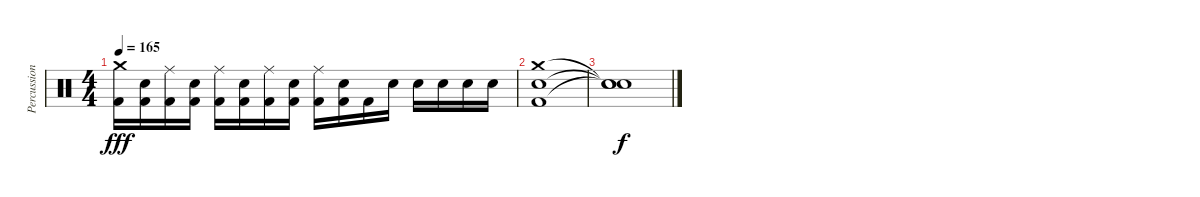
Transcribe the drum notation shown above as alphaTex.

\track ("Percussions" "Percussion") {instrument percussion}
\staff {score}
\articulation defaults
\ts (4 4)
\tempo 165
\clef neutral
\ks c
("Crash medium (hit)" "Kick (hit) 2").16{dy fff} ("Electric Snare (hit)" "Kick (hit) 2").16 ("Ride (middle)" "Kick (hit) 2").16 ("Electric Snare (hit)" "Kick (hit) 2").16 ("Ride (middle)" "Kick (hit) 2").16 ("Electric Snare (hit)" "Kick (hit) 2").16 ("Ride (middle)" "Kick (hit) 2").16 ("Electric Snare (hit)" "Kick (hit) 2").16 ("Ride (middle)" "Kick (hit) 2").16 ("Electric Snare (hit)" "Kick (hit) 2").16 "Kick (hit) 2".16 "Electric Snare (hit)".16 "Electric Snare (hit)".16 "Electric Snare (hit)".16 "Electric Snare (hit)".16 "Electric Snare (hit)".16 |
("Crash medium (hit)" "Electric Snare (hit)" "Kick (hit) 2").1 |
("Snare (hit)"{t} "Snare (hit)"{t} "Snare (hit)"{t}).1{dy f}
